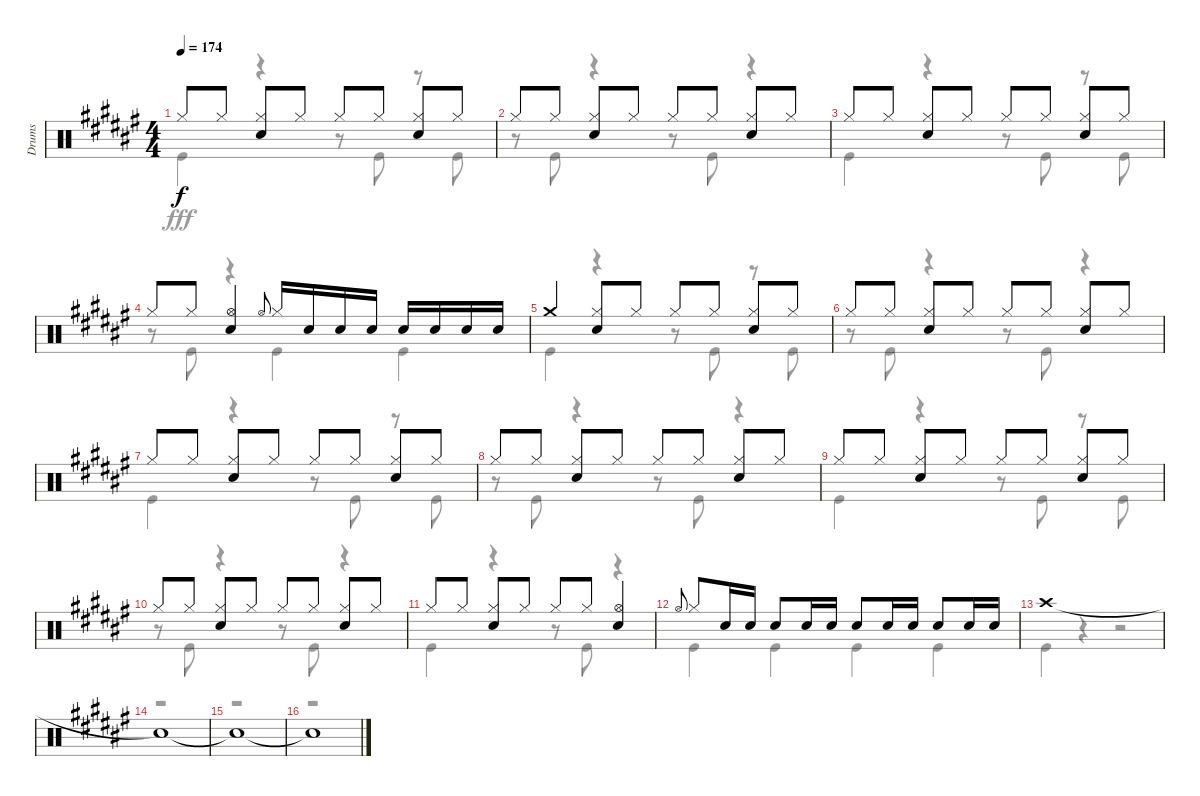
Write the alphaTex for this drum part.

\track ("Drums" "Drums") {instrument percussion}
\staff {score}
\articulation defaults
\voice
\ts (4 4)
\tempo 174
\clef neutral
\ks f# "Hi-Hat (closed)".8{dy f} "Hi-Hat (closed)".8
("Hi-Hat (closed)" "Snare (hit) 2").8 "Hi-Hat (closed)".8 "Hi-Hat (closed)".8 "Hi-Hat (closed)".8 ("Hi-Hat (closed)" "Snare (hit) 2").8 "Hi-Hat (closed)".8 |
"Hi-Hat (closed)".8 "Hi-Hat (closed)".8 ("Hi-Hat (closed)" "Snare (hit) 2").8 "Hi-Hat (closed)".8 "Hi-Hat (closed)".8 "Hi-Hat (closed)".8 ("Hi-Hat (closed)" "Snare (hit) 2").8 "Hi-Hat (closed)".8 |
"Hi-Hat (closed)".8 "Hi-Hat (closed)".8 ("Hi-Hat (closed)" "Snare (hit) 2").8 "Hi-Hat (closed)".8 "Hi-Hat (closed)".8 "Hi-Hat (closed)".8 ("Hi-Hat (closed)" "Snare (hit) 2").8 "Hi-Hat (closed)".8 |
"Hi-Hat (closed)".8 "Hi-Hat (closed)".8 ("Hi-Hat (open)" "Snare (hit) 2").4 "Hi-Hat (open)".8{gr onbeat} "Hi-Hat (closed)".16 "Snare (hit) 2".16 "Snare (hit) 2".16 "Snare (hit) 2".16 "Snare (hit) 2".16 "Snare (hit) 2".16 "Snare (hit) 2".16 "Snare (hit) 2".16 |
"Crash medium (hit)".4 ("Hi-Hat (closed)" "Snare (hit) 2").8 "Hi-Hat (closed)".8 "Hi-Hat (closed)".8 "Hi-Hat (closed)".8 ("Hi-Hat (closed)" "Snare (hit) 2").8 "Hi-Hat (closed)".8 |
"Hi-Hat (closed)".8 "Hi-Hat (closed)".8 ("Hi-Hat (closed)" "Snare (hit) 2").8 "Hi-Hat (closed)".8 "Hi-Hat (closed)".8 "Hi-Hat (closed)".8 ("Hi-Hat (closed)" "Snare (hit) 2").8 "Hi-Hat (closed)".8 |
"Hi-Hat (closed)".8 "Hi-Hat (closed)".8 ("Hi-Hat (closed)" "Snare (hit) 2").8 "Hi-Hat (closed)".8 "Hi-Hat (closed)".8 "Hi-Hat (closed)".8 ("Hi-Hat (closed)" "Snare (hit) 2").8 "Hi-Hat (closed)".8 |
"Hi-Hat (closed)".8 "Hi-Hat (closed)".8 ("Hi-Hat (closed)" "Snare (hit) 2").8 "Hi-Hat (closed)".8 "Hi-Hat (closed)".8 "Hi-Hat (closed)".8 ("Hi-Hat (closed)" "Snare (hit) 2").8 "Hi-Hat (closed)".8 |
"Hi-Hat (closed)".8 "Hi-Hat (closed)".8 ("Hi-Hat (closed)" "Snare (hit) 2").8 "Hi-Hat (closed)".8 "Hi-Hat (closed)".8 "Hi-Hat (closed)".8 ("Hi-Hat (closed)" "Snare (hit) 2").8 "Hi-Hat (closed)".8 |
"Hi-Hat (closed)".8 "Hi-Hat (closed)".8 ("Hi-Hat (closed)" "Snare (hit) 2").8 "Hi-Hat (closed)".8 "Hi-Hat (closed)".8 "Hi-Hat (closed)".8 ("Hi-Hat (closed)" "Snare (hit) 2").8 "Hi-Hat (closed)".8 |
"Hi-Hat (closed)".8 "Hi-Hat (closed)".8 ("Hi-Hat (closed)" "Snare (hit) 2").8 "Hi-Hat (closed)".8 "Hi-Hat (closed)".8 "Hi-Hat (closed)".8 ("Hi-Hat (open)" "Snare (hit) 2").4 |
"Hi-Hat (open)".8{gr onbeat} "Hi-Hat (closed)".8 "Snare (hit) 2".16 "Snare (hit) 2".16 "Snare (hit) 2".8 "Snare (hit) 2".16 "Snare (hit) 2".16 "Snare (hit) 2".8 "Snare (hit) 2".16 "Snare (hit) 2".16 "Snare (hit) 2".8 "Snare (hit) 2".16 "Snare (hit) 2".16 |
"Crash high (hit)".1 |
"Snare (hit)"{t}.1 |
"Snare (hit)"{t}.1 |
"Snare (hit)"{t}.1
\voice
\clef neutral
\ottava regular
\simile none
\ks f# "Kick (hit)".4{dy fff}
r.4 r.8 "Kick (hit)".8 r.8 "Kick (hit)".8 |
r.8 "Kick (hit)".8 r.4 r.8 "Kick (hit)".8 r.4 |
"Kick (hit)".4 r.4 r.8 "Kick (hit)".8 r.8 "Kick (hit)".8 |
r.8 "Kick (hit)".8 r.4 "Kick (hit)".4 "Kick (hit)".4 |
"Kick (hit)".4 r.4 r.8 "Kick (hit)".8 r.8 "Kick (hit)".8 |
r.8 "Kick (hit)".8 r.4 r.8 "Kick (hit)".8 r.4 |
"Kick (hit)".4 r.4 r.8 "Kick (hit)".8 r.8 "Kick (hit)".8 |
r.8 "Kick (hit)".8 r.4 r.8 "Kick (hit)".8 r.4 |
"Kick (hit)".4 r.4 r.8 "Kick (hit)".8 r.8 "Kick (hit)".8 |
r.8 "Kick (hit)".8 r.4 r.8 "Kick (hit)".8 r.4 |
"Kick (hit)".4 r.4 r.8 "Kick (hit)".8 r.4 |
"Kick (hit)".4 "Kick (hit)".4 "Kick (hit)".4 "Kick (hit)".4 |
"Kick (hit)".4 r.4 r.2 |
r.1 |
r.1 |
r.1
